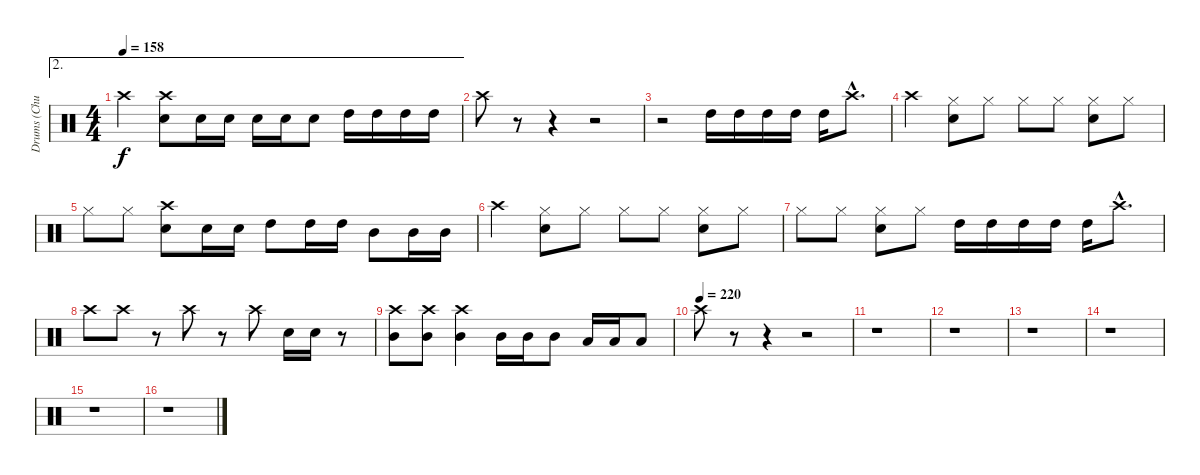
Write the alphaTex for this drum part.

\track ("Drums (Chuck Behler)" "Drums (Chu") {instrument percussion}
\staff {score}
\articulation defaults
\ae 2
\ts (4 4)
\tempo 158
\clef neutral
\ks c "Crash high (hit)".4{dy f}
("Crash high (hit)" "Snare (hit) 2").8 "Snare (hit) 2".16 "Snare (hit) 2".16 "Snare (hit) 2".16 "Snare (hit) 2".16 "Snare (hit) 2".8 "High Tom (hit)".16 "High Tom (hit)".16 "High Tom (hit)".16 "High Tom (hit)".16 |
"Crash high (hit)".8 r.8 r.4 r.2 |
r.2 "High Tom (hit)".16 "High Tom (hit)".16 "High Tom (hit)".16 "High Tom (hit)".16 "High Tom (hit)".16 "Crash high (hit)"{hac}.8{d} |
"Crash high (hit)".4 ("Hi-Hat (closed)" "Snare (hit) 2").8 "Hi-Hat (closed)".8 "Hi-Hat (closed)".8 "Hi-Hat (closed)".8 ("Hi-Hat (closed)" "Snare (hit) 2").8 "Hi-Hat (closed)".8 |
"Hi-Hat (closed)".8 "Hi-Hat (closed)".8 ("Crash high (hit)" "Snare (hit) 2").8 "Snare (hit) 2".16 "Snare (hit) 2".16 "High Tom (hit)".8 "High Tom (hit)".16 "High Tom (hit)".16 "Mid Tom (hit)".8 "Mid Tom (hit)".16 "Mid Tom (hit)".16 |
"Crash high (hit)".4 ("Hi-Hat (closed)" "Snare (hit) 2").8 "Hi-Hat (closed)".8 "Hi-Hat (closed)".8 "Hi-Hat (closed)".8 ("Hi-Hat (closed)" "Snare (hit) 2").8 "Hi-Hat (closed)".8 |
"Hi-Hat (closed)".8 "Hi-Hat (closed)".8 ("Hi-Hat (closed)" "Snare (hit) 2").8 "Hi-Hat (closed)".8 "High Tom (hit)".16 "High Tom (hit)".16 "High Tom (hit)".16 "High Tom (hit)".16 "High Tom (hit)".16 "Crash high (hit)"{hac}.8{d} |
"Crash high (hit)".8 "Crash high (hit)".8 r.8 "Crash high (hit)".8 r.8 "Crash high (hit)".8 "Snare (hit) 2".16 "Snare (hit) 2".16 r.8 |
("Crash high (hit)" "Mid Tom (hit)").8 ("Crash high (hit)" "Mid Tom (hit)").8 ("Crash high (hit)" "Mid Tom (hit)").4 "Mid Tom (hit)".16 "Mid Tom (hit)".16 "Mid Tom (hit)".8 "Low Tom (hit)".16 "Low Tom (hit)".16 "Low Tom (hit)".8 |
\tempo (220)
"Crash high (hit)".8 r.8 r.4 r.2 |
r.1 |
r.1 |
r.1 |
r.1 |
r.1 |
r.1
